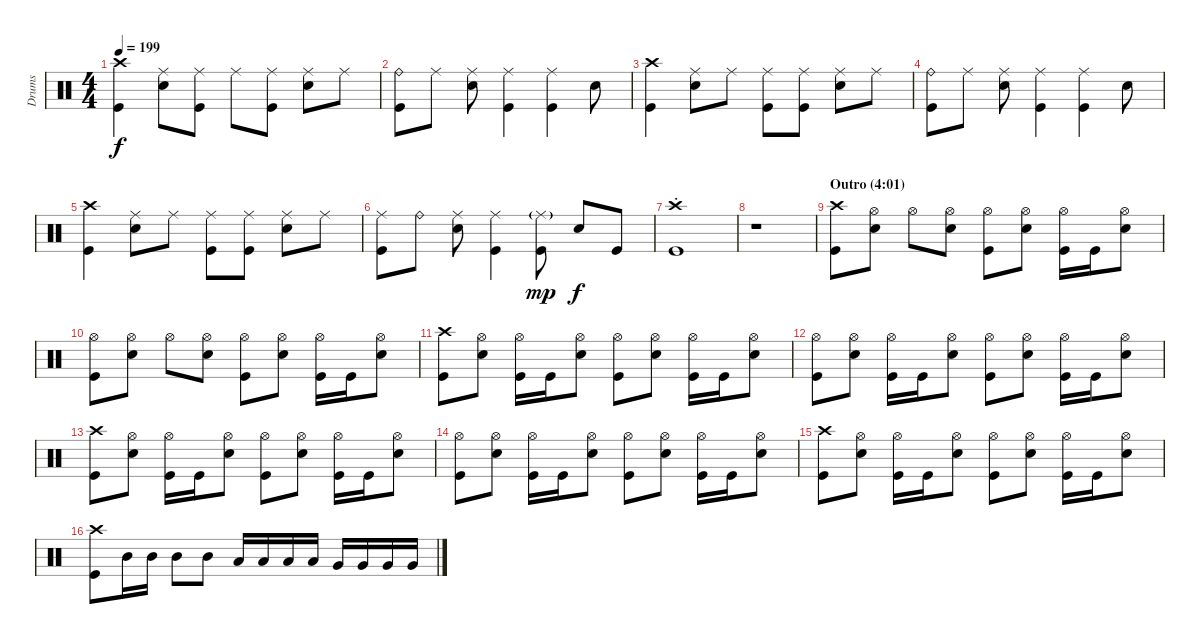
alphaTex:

\track ("Drums" "Drums") {instrument percussion}
\staff {score}
\articulation defaults
\ts (4 4)
\tempo 199
\clef neutral
\ks c
("Crash high (hit)" "Kick (hit)").4{dy f} ("Ride (middle)" "Snare (hit) 2").8 ("Ride (middle)" "Kick (hit)").8 "Ride (middle)".8 ("Ride (middle)" "Kick (hit)").8 ("Ride (middle)" "Snare (hit) 2").8 "Ride (middle)".8 |
("Ride (bell)" "Kick (hit)").8 "Ride (middle)".8 ("Ride (middle)" "Snare (hit) 2").8 ("Ride (middle)" "Kick (hit)").4 ("Ride (middle)" "Kick (hit)").4 "Snare (hit) 2".8 |
("Crash high (hit)" "Kick (hit)").4 ("Ride (middle)" "Snare (hit) 2").8 "Ride (middle)".8 ("Ride (middle)" "Kick (hit)").8 ("Ride (middle)" "Kick (hit)").8 ("Ride (middle)" "Snare (hit) 2").8 "Ride (middle)".8 |
("Ride (bell)" "Kick (hit)").8 "Ride (middle)".8 ("Ride (middle)" "Snare (hit) 2").8 ("Ride (middle)" "Kick (hit)").4 ("Ride (middle)" "Kick (hit)").4 "Snare (hit) 2".8 |
("Crash high (hit)" "Kick (hit)").4 ("Ride (middle)" "Snare (hit) 2").8 "Ride (middle)".8 ("Ride (middle)" "Kick (hit)").8 ("Ride (middle)" "Kick (hit)").8 ("Ride (middle)" "Snare (hit) 2").8 "Ride (middle)".8 |
("Ride (middle)" "Kick (hit)").8 "Ride (bell)".8 ("Ride (middle)" "Snare (hit) 2").8 ("Ride (middle)" "Kick (hit)").4 ("Ride (middle)"{g} "Kick (hit)").8{dy mp} "Snare (hit) 2".8{dy f} "Kick (hit)".8 |
("Crash high (hit)"{st} "Kick (hit)").1 |
r.1 |
\section ("" "Outro (4:01)")
("Crash high (hit)" "Kick (hit)").8 ("Hi-Hat (open)" "Snare (hit) 2").8 "Hi-Hat (open)".8 ("Hi-Hat (open)" "Snare (hit) 2").8 ("Hi-Hat (open)" "Kick (hit)").8 ("Hi-Hat (open)" "Snare (hit) 2").8 ("Hi-Hat (open)" "Kick (hit)").16 "Kick (hit)".16 ("Hi-Hat (open)" "Snare (hit) 2").8 |
("Hi-Hat (open)" "Kick (hit)").8 ("Hi-Hat (open)" "Snare (hit) 2").8 "Hi-Hat (open)".8 ("Hi-Hat (open)" "Snare (hit) 2").8 ("Hi-Hat (open)" "Kick (hit)").8 ("Hi-Hat (open)" "Snare (hit) 2").8 ("Hi-Hat (open)" "Kick (hit)").16 "Kick (hit)".16 ("Hi-Hat (open)" "Snare (hit) 2").8 |
("Crash high (hit)" "Kick (hit)").8 ("Hi-Hat (open)" "Snare (hit) 2").8 ("Hi-Hat (open)" "Kick (hit)").16 "Kick (hit)".16 ("Hi-Hat (open)" "Snare (hit) 2").8 ("Hi-Hat (open)" "Kick (hit)").8 ("Hi-Hat (open)" "Snare (hit) 2").8 ("Hi-Hat (open)" "Kick (hit)").16 "Kick (hit)".16 ("Hi-Hat (open)" "Snare (hit) 2").8 |
("Hi-Hat (open)" "Kick (hit)").8 ("Hi-Hat (open)" "Snare (hit) 2").8 ("Hi-Hat (open)" "Kick (hit)").16 "Kick (hit)".16 ("Hi-Hat (open)" "Snare (hit) 2").8 ("Hi-Hat (open)" "Kick (hit)").8 ("Hi-Hat (open)" "Snare (hit) 2").8 ("Hi-Hat (open)" "Kick (hit)").16 "Kick (hit)".16 ("Hi-Hat (open)" "Snare (hit) 2").8 |
("Crash high (hit)" "Kick (hit)").8 ("Hi-Hat (open)" "Snare (hit) 2").8 ("Hi-Hat (open)" "Kick (hit)").16 "Kick (hit)".16 ("Hi-Hat (open)" "Snare (hit) 2").8 ("Hi-Hat (open)" "Kick (hit)").8 ("Hi-Hat (open)" "Snare (hit) 2").8 ("Hi-Hat (open)" "Kick (hit)").16 "Kick (hit)".16 ("Hi-Hat (open)" "Snare (hit) 2").8 |
("Hi-Hat (open)" "Kick (hit)").8 ("Hi-Hat (open)" "Snare (hit) 2").8 ("Hi-Hat (open)" "Kick (hit)").16 "Kick (hit)".16 ("Hi-Hat (open)" "Snare (hit) 2").8 ("Hi-Hat (open)" "Kick (hit)").8 ("Hi-Hat (open)" "Snare (hit) 2").8 ("Hi-Hat (open)" "Kick (hit)").16 "Kick (hit)".16 ("Hi-Hat (open)" "Snare (hit) 2").8 |
("Crash high (hit)" "Kick (hit)").8 ("Hi-Hat (open)" "Snare (hit) 2").8 ("Hi-Hat (open)" "Kick (hit)").16 "Kick (hit)".16 ("Hi-Hat (open)" "Snare (hit) 2").8 ("Hi-Hat (open)" "Kick (hit)").8 ("Hi-Hat (open)" "Snare (hit) 2").8 ("Hi-Hat (open)" "Kick (hit)").16 "Kick (hit)".16 ("Hi-Hat (open)" "Snare (hit) 2").8 |
("Crash high (hit)" "Kick (hit)").8 "Mid Tom (hit)".16 "Mid Tom (hit)".16 "Mid Tom (hit)".8 "Mid Tom (hit)".8 "Low Tom (hit)".16 "Low Tom (hit)".16 "Low Tom (hit)".16 "Low Tom (hit)".16 "Very Low Tom (hit)".16 "Very Low Tom (hit)".16 "Very Low Tom (hit)".16 "Very Low Tom (hit)".16
